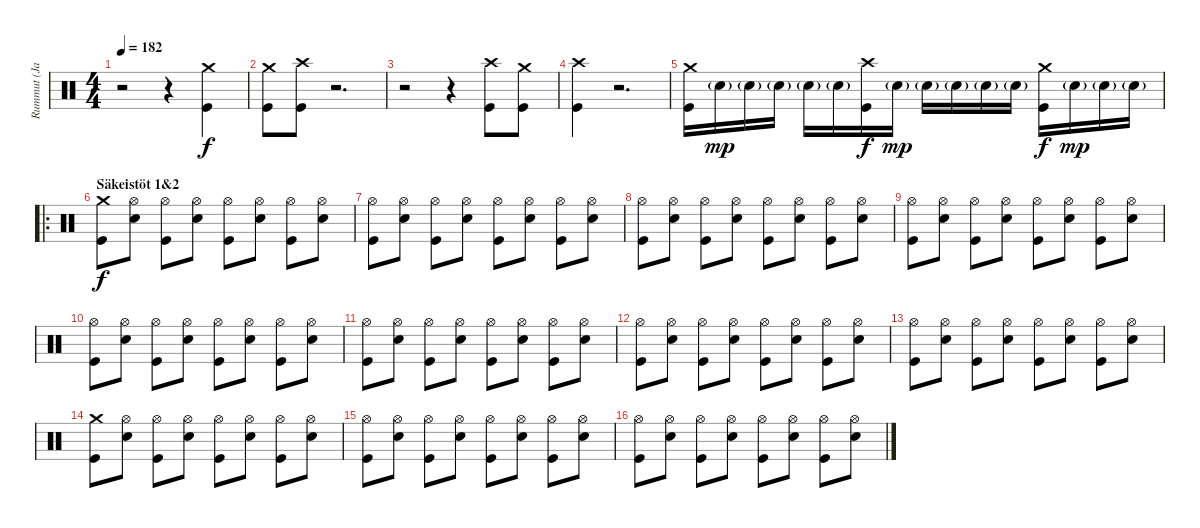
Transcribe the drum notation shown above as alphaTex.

\track ("Rummut (Janne)" "Rummut (Ja") {instrument percussion}
\staff {score}
\articulation defaults
\ts (4 4)
\tempo 182
\clef neutral
\ks c
r.2{dy f} r.4 ("Crash medium (hit)" "Kick (hit)").4 |
("Crash medium (hit)" "Kick (hit)").8 ("Crash high (hit)" "Kick (hit)").8 r.2{d} |
r.2 r.4 ("Crash high (hit)" "Kick (hit)").8 ("Crash medium (hit)" "Kick (hit)").8 |
("Crash high (hit)" "Kick (hit)").4 r.2{d} |
("Crash medium (hit)" "Kick (hit)").16 "Snare (hit) 2"{g}.16{dy mp} "Snare (hit) 2"{g}.16 "Snare (hit) 2"{g}.16 "Snare (hit) 2"{g}.16 "Snare (hit) 2"{g}.16 ("Crash high (hit)" "Kick (hit)").16{dy f} "Snare (hit) 2"{g}.16{dy mp} "Snare (hit) 2"{g}.16 "Snare (hit) 2"{g}.16 "Snare (hit) 2"{g}.16 "Snare (hit) 2"{g}.16 ("Crash medium (hit)" "Kick (hit)").16{dy f} "Snare (hit) 2"{g}.16{dy mp} "Snare (hit) 2"{g}.16 "Snare (hit) 2"{g}.16 |
\ro
\section ("" "Säkeistöt 1&2")
("Crash medium (hit)" "Kick (hit)").8{dy f} ("Hi-Hat (open)" "Snare (hit) 2").8 ("Hi-Hat (open)" "Kick (hit)").8 ("Hi-Hat (open)" "Snare (hit) 2").8 ("Hi-Hat (open)" "Kick (hit)").8 ("Hi-Hat (open)" "Snare (hit) 2").8 ("Hi-Hat (open)" "Kick (hit)").8 ("Hi-Hat (open)" "Snare (hit) 2").8 |
("Hi-Hat (open)" "Kick (hit)").8 ("Hi-Hat (open)" "Snare (hit) 2").8 ("Hi-Hat (open)" "Kick (hit)").8 ("Hi-Hat (open)" "Snare (hit) 2").8 ("Hi-Hat (open)" "Kick (hit)").8 ("Hi-Hat (open)" "Snare (hit) 2").8 ("Hi-Hat (open)" "Kick (hit)").8 ("Hi-Hat (open)" "Snare (hit) 2").8 |
("Hi-Hat (open)" "Kick (hit)").8 ("Hi-Hat (open)" "Snare (hit) 2").8 ("Hi-Hat (open)" "Kick (hit)").8 ("Hi-Hat (open)" "Snare (hit) 2").8 ("Hi-Hat (open)" "Kick (hit)").8 ("Hi-Hat (open)" "Snare (hit) 2").8 ("Hi-Hat (open)" "Kick (hit)").8 ("Hi-Hat (open)" "Snare (hit) 2").8 |
("Hi-Hat (open)" "Kick (hit)").8 ("Hi-Hat (open)" "Snare (hit) 2").8 ("Hi-Hat (open)" "Kick (hit)").8 ("Hi-Hat (open)" "Snare (hit) 2").8 ("Hi-Hat (open)" "Kick (hit)").8 ("Hi-Hat (open)" "Snare (hit) 2").8 ("Hi-Hat (open)" "Kick (hit)").8 ("Hi-Hat (open)" "Snare (hit) 2").8 |
("Hi-Hat (open)" "Kick (hit)").8 ("Hi-Hat (open)" "Snare (hit) 2").8 ("Hi-Hat (open)" "Kick (hit)").8 ("Hi-Hat (open)" "Snare (hit) 2").8 ("Hi-Hat (open)" "Kick (hit)").8 ("Hi-Hat (open)" "Snare (hit) 2").8 ("Hi-Hat (open)" "Kick (hit)").8 ("Hi-Hat (open)" "Snare (hit) 2").8 |
("Hi-Hat (open)" "Kick (hit)").8 ("Hi-Hat (open)" "Snare (hit) 2").8 ("Hi-Hat (open)" "Kick (hit)").8 ("Hi-Hat (open)" "Snare (hit) 2").8 ("Hi-Hat (open)" "Kick (hit)").8 ("Hi-Hat (open)" "Snare (hit) 2").8 ("Hi-Hat (open)" "Kick (hit)").8 ("Hi-Hat (open)" "Snare (hit) 2").8 |
("Hi-Hat (open)" "Kick (hit)").8 ("Hi-Hat (open)" "Snare (hit) 2").8 ("Hi-Hat (open)" "Kick (hit)").8 ("Hi-Hat (open)" "Snare (hit) 2").8 ("Hi-Hat (open)" "Kick (hit)").8 ("Hi-Hat (open)" "Snare (hit) 2").8 ("Hi-Hat (open)" "Kick (hit)").8 ("Hi-Hat (open)" "Snare (hit) 2").8 |
("Hi-Hat (open)" "Kick (hit)").8 ("Hi-Hat (open)" "Snare (hit) 2").8 ("Hi-Hat (open)" "Kick (hit)").8 ("Hi-Hat (open)" "Snare (hit) 2").8 ("Hi-Hat (open)" "Kick (hit)").8 ("Hi-Hat (open)" "Snare (hit) 2").8 ("Hi-Hat (open)" "Kick (hit)").8 ("Hi-Hat (open)" "Snare (hit) 2").8 |
("Crash medium (hit)" "Kick (hit)").8 ("Hi-Hat (open)" "Snare (hit) 2").8 ("Hi-Hat (open)" "Kick (hit)").8 ("Hi-Hat (open)" "Snare (hit) 2").8 ("Hi-Hat (open)" "Kick (hit)").8 ("Hi-Hat (open)" "Snare (hit) 2").8 ("Hi-Hat (open)" "Kick (hit)").8 ("Hi-Hat (open)" "Snare (hit) 2").8 |
("Hi-Hat (open)" "Kick (hit)").8 ("Hi-Hat (open)" "Snare (hit) 2").8 ("Hi-Hat (open)" "Kick (hit)").8 ("Hi-Hat (open)" "Snare (hit) 2").8 ("Hi-Hat (open)" "Kick (hit)").8 ("Hi-Hat (open)" "Snare (hit) 2").8 ("Hi-Hat (open)" "Kick (hit)").8 ("Hi-Hat (open)" "Snare (hit) 2").8 |
("Hi-Hat (open)" "Kick (hit)").8 ("Hi-Hat (open)" "Snare (hit) 2").8 ("Hi-Hat (open)" "Kick (hit)").8 ("Hi-Hat (open)" "Snare (hit) 2").8 ("Hi-Hat (open)" "Kick (hit)").8 ("Hi-Hat (open)" "Snare (hit) 2").8 ("Hi-Hat (open)" "Kick (hit)").8 ("Hi-Hat (open)" "Snare (hit) 2").8
